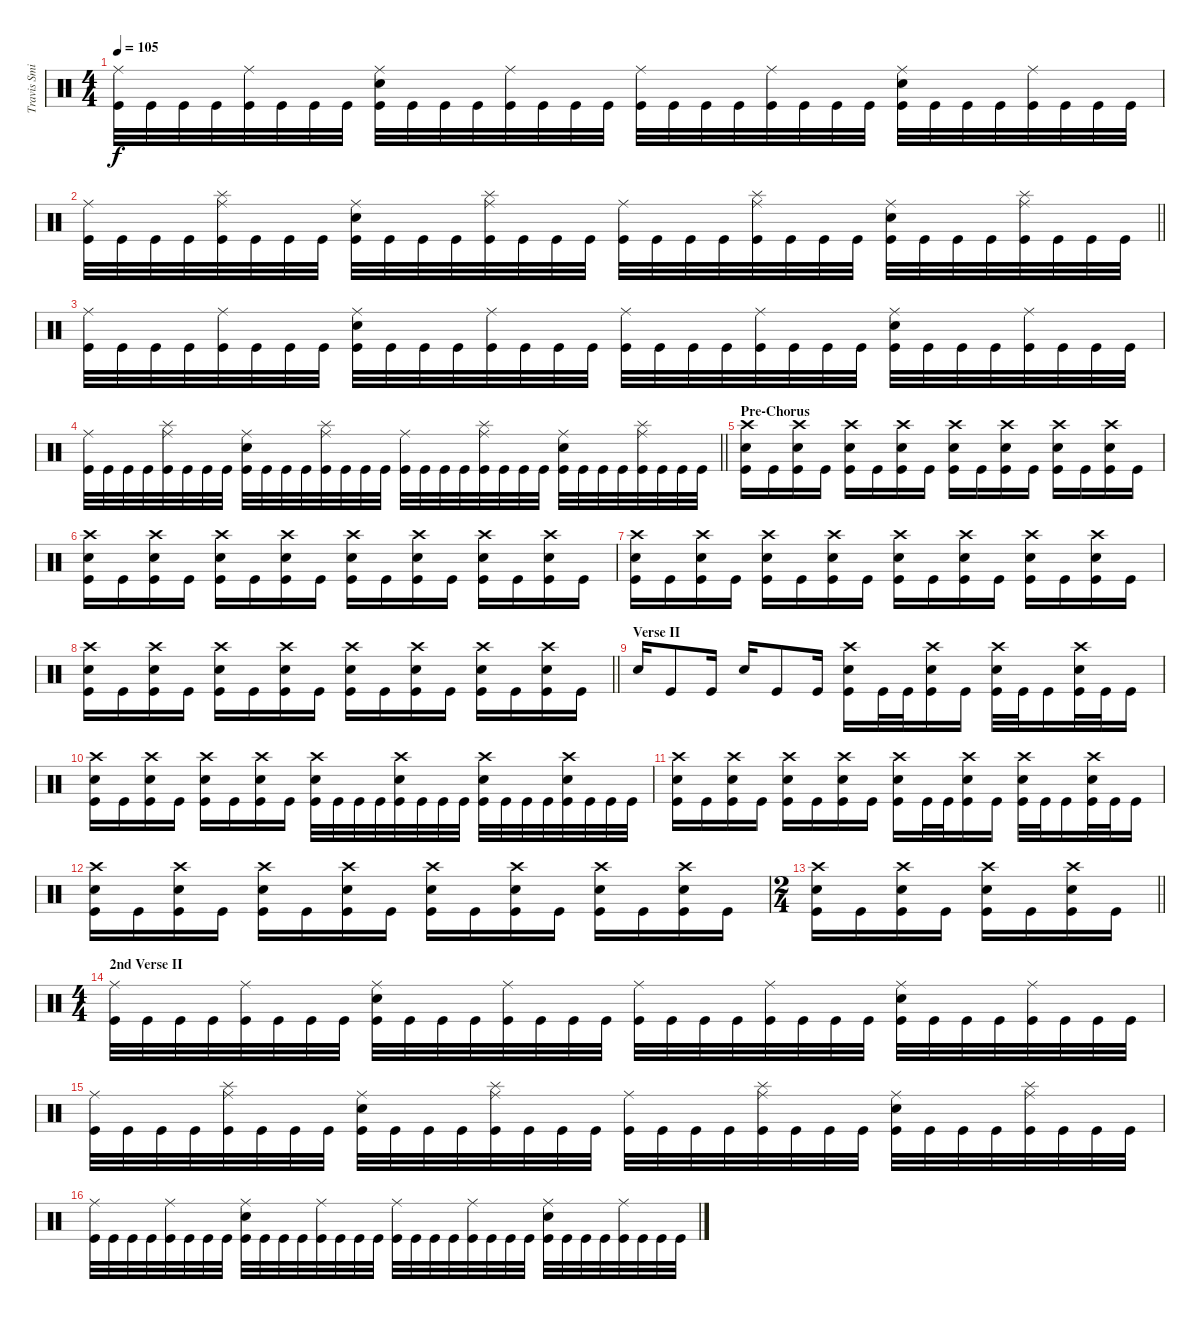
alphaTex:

\track ("Travis Smith" "Travis Smi") {instrument percussion}
\staff {score}
\articulation defaults
\ts (4 4)
\tempo 105
\clef neutral
\ks c
("Ride (middle)" "Kick (hit)").32{dy f} "Kick (hit)".32 "Kick (hit)".32 "Kick (hit)".32 ("Ride (middle)" "Kick (hit)").32 "Kick (hit)".32 "Kick (hit)".32 "Kick (hit)".32 ("Ride (middle)" "Snare (hit) 2" "Kick (hit)").32 "Kick (hit)".32 "Kick (hit)".32 "Kick (hit)".32 ("Ride (middle)" "Kick (hit)").32 "Kick (hit)".32 "Kick (hit)".32 "Kick (hit)".32 ("Ride (middle)" "Kick (hit)").32 "Kick (hit)".32 "Kick (hit)".32 "Kick (hit)".32 ("Ride (middle)" "Kick (hit)").32 "Kick (hit)".32 "Kick (hit)".32 "Kick (hit)".32 ("Ride (middle)" "Snare (hit) 2" "Kick (hit)").32 "Kick (hit)".32 "Kick (hit)".32 "Kick (hit)".32 ("Ride (middle)" "Kick (hit)").32 "Kick (hit)".32 "Kick (hit)".32 "Kick (hit)".32 |
\barLineRight lightlight
("Ride (middle)" "Kick (hit)").32 "Kick (hit)".32 "Kick (hit)".32 "Kick (hit)".32 ("Ride (middle)" "Splash (hit)" "Kick (hit)").32 "Kick (hit)".32 "Kick (hit)".32 "Kick (hit)".32 ("Ride (middle)" "Snare (hit) 2" "Kick (hit)").32 "Kick (hit)".32 "Kick (hit)".32 "Kick (hit)".32 ("Ride (middle)" "Splash (hit)" "Kick (hit)").32 "Kick (hit)".32 "Kick (hit)".32 "Kick (hit)".32 ("Ride (middle)" "Kick (hit)").32 "Kick (hit)".32 "Kick (hit)".32 "Kick (hit)".32 ("Ride (middle)" "Splash (hit)" "Kick (hit)").32 "Kick (hit)".32 "Kick (hit)".32 "Kick (hit)".32 ("Ride (middle)" "Snare (hit) 2" "Kick (hit)").32 "Kick (hit)".32 "Kick (hit)".32 "Kick (hit)".32 ("Ride (middle)" "Splash (hit)" "Kick (hit)").32 "Kick (hit)".32 "Kick (hit)".32 "Kick (hit)".32 |
("Ride (middle)" "Kick (hit)").32 "Kick (hit)".32 "Kick (hit)".32 "Kick (hit)".32 ("Ride (middle)" "Kick (hit)").32 "Kick (hit)".32 "Kick (hit)".32 "Kick (hit)".32 ("Ride (middle)" "Snare (hit) 2" "Kick (hit)").32 "Kick (hit)".32 "Kick (hit)".32 "Kick (hit)".32 ("Ride (middle)" "Kick (hit)").32 "Kick (hit)".32 "Kick (hit)".32 "Kick (hit)".32 ("Ride (middle)" "Kick (hit)").32 "Kick (hit)".32 "Kick (hit)".32 "Kick (hit)".32 ("Ride (middle)" "Kick (hit)").32 "Kick (hit)".32 "Kick (hit)".32 "Kick (hit)".32 ("Ride (middle)" "Snare (hit) 2" "Kick (hit)").32 "Kick (hit)".32 "Kick (hit)".32 "Kick (hit)".32 ("Ride (middle)" "Kick (hit)").32 "Kick (hit)".32 "Kick (hit)".32 "Kick (hit)".32 |
\barLineRight lightlight
("Ride (middle)" "Kick (hit)").32 "Kick (hit)".32 "Kick (hit)".32 "Kick (hit)".32 ("Ride (middle)" "Splash (hit)" "Kick (hit)").32 "Kick (hit)".32 "Kick (hit)".32 "Kick (hit)".32 ("Ride (middle)" "Snare (hit) 2" "Kick (hit)").32 "Kick (hit)".32 "Kick (hit)".32 "Kick (hit)".32 ("Ride (middle)" "Splash (hit)" "Kick (hit)").32 "Kick (hit)".32 "Kick (hit)".32 "Kick (hit)".32 ("Ride (middle)" "Kick (hit)").32 "Kick (hit)".32 "Kick (hit)".32 "Kick (hit)".32 ("Ride (middle)" "Splash (hit)" "Kick (hit)").32 "Kick (hit)".32 "Kick (hit)".32 "Kick (hit)".32 ("Ride (middle)" "Snare (hit) 2" "Kick (hit)").32 "Kick (hit)".32 "Kick (hit)".32 "Kick (hit)".32 ("Ride (middle)" "Splash (hit)" "Kick (hit)").32 "Kick (hit)".32 "Kick (hit)".32 "Kick (hit)".32 |
\section ("" "Pre-Chorus")
("Crash high (hit)" "Snare (hit) 2" "Kick (hit)").16 "Kick (hit)".16 ("Crash high (hit)" "Snare (hit) 2" "Kick (hit)").16 "Kick (hit)".16 ("Crash high (hit)" "Snare (hit) 2" "Kick (hit)").16 "Kick (hit)".16 ("Crash high (hit)" "Snare (hit) 2" "Kick (hit)").16 "Kick (hit)".16 ("Crash high (hit)" "Snare (hit) 2" "Kick (hit)").16 "Kick (hit)".16 ("Crash high (hit)" "Snare (hit) 2" "Kick (hit)").16 "Kick (hit)".16 ("Crash high (hit)" "Snare (hit) 2" "Kick (hit)").16 "Kick (hit)".16 ("Crash high (hit)" "Snare (hit) 2" "Kick (hit)").16 "Kick (hit)".16 |
("Crash high (hit)" "Snare (hit) 2" "Kick (hit)").16 "Kick (hit)".16 ("Crash high (hit)" "Snare (hit) 2" "Kick (hit)").16 "Kick (hit)".16 ("Crash high (hit)" "Snare (hit) 2" "Kick (hit)").16 "Kick (hit)".16 ("Crash high (hit)" "Snare (hit) 2" "Kick (hit)").16 "Kick (hit)".16 ("Crash high (hit)" "Snare (hit) 2" "Kick (hit)").16 "Kick (hit)".16 ("Crash high (hit)" "Snare (hit) 2" "Kick (hit)").16 "Kick (hit)".16 ("Crash high (hit)" "Snare (hit) 2" "Kick (hit)").16 "Kick (hit)".16 ("Crash high (hit)" "Snare (hit) 2" "Kick (hit)").16 "Kick (hit)".16 |
("Crash high (hit)" "Snare (hit) 2" "Kick (hit)").16 "Kick (hit)".16 ("Crash high (hit)" "Snare (hit) 2" "Kick (hit)").16 "Kick (hit)".16 ("Crash high (hit)" "Snare (hit) 2" "Kick (hit)").16 "Kick (hit)".16 ("Crash high (hit)" "Snare (hit) 2" "Kick (hit)").16 "Kick (hit)".16 ("Crash high (hit)" "Snare (hit) 2" "Kick (hit)").16 "Kick (hit)".16 ("Crash high (hit)" "Snare (hit) 2" "Kick (hit)").16 "Kick (hit)".16 ("Crash high (hit)" "Snare (hit) 2" "Kick (hit)").16 "Kick (hit)".16 ("Crash high (hit)" "Snare (hit) 2" "Kick (hit)").16 "Kick (hit)".16 |
\barLineRight lightlight
("Crash high (hit)" "Snare (hit) 2" "Kick (hit)").16 "Kick (hit)".16 ("Crash high (hit)" "Snare (hit) 2" "Kick (hit)").16 "Kick (hit)".16 ("Crash high (hit)" "Snare (hit) 2" "Kick (hit)").16 "Kick (hit)".16 ("Crash high (hit)" "Snare (hit) 2" "Kick (hit)").16 "Kick (hit)".16 ("Crash high (hit)" "Snare (hit) 2" "Kick (hit)").16 "Kick (hit)".16 ("Crash high (hit)" "Snare (hit) 2" "Kick (hit)").16 "Kick (hit)".16 ("Crash high (hit)" "Snare (hit) 2" "Kick (hit)").16 "Kick (hit)".16 ("Crash high (hit)" "Snare (hit) 2" "Kick (hit)").16 "Kick (hit)".16 |
\section ("" "Verse II")
"Snare (hit) 2".16 "Kick (hit)".8 "Kick (hit)".16 "Snare (hit) 2".16 "Kick (hit)".8 "Kick (hit)".16 ("Crash high (hit)" "Snare (hit) 2" "Kick (hit)").16 "Kick (hit)".32 "Kick (hit)".32 ("Crash high (hit)" "Snare (hit) 2" "Kick (hit)").16 "Kick (hit)".16 ("Crash high (hit)" "Snare (hit) 2" "Kick (hit)").32 "Kick (hit)".32 "Kick (hit)".16 ("Crash high (hit)" "Snare (hit) 2" "Kick (hit)").32 "Kick (hit)".32 "Kick (hit)".16 |
("Crash high (hit)" "Snare (hit) 2" "Kick (hit)").16 "Kick (hit)".16 ("Crash high (hit)" "Snare (hit) 2" "Kick (hit)").16 "Kick (hit)".16 ("Crash high (hit)" "Snare (hit) 2" "Kick (hit)").16 "Kick (hit)".16 ("Crash high (hit)" "Snare (hit) 2" "Kick (hit)").16 "Kick (hit)".16 ("Crash high (hit)" "Snare (hit) 2" "Kick (hit)").32 "Kick (hit)".32 "Kick (hit)".32 "Kick (hit)".32 ("Crash high (hit)" "Snare (hit) 2" "Kick (hit)").32 "Kick (hit)".32 "Kick (hit)".32 "Kick (hit)".32 ("Crash high (hit)" "Snare (hit) 2" "Kick (hit)").32 "Kick (hit)".32 "Kick (hit)".32 "Kick (hit)".32 ("Crash high (hit)" "Snare (hit) 2" "Kick (hit)").32 "Kick (hit)".32 "Kick (hit)".32 "Kick (hit)".32 |
("Crash high (hit)" "Snare (hit) 2" "Kick (hit)").16 "Kick (hit)".16 ("Crash high (hit)" "Snare (hit) 2" "Kick (hit)").16 "Kick (hit)".16 ("Crash high (hit)" "Snare (hit) 2" "Kick (hit)").16 "Kick (hit)".16 ("Crash high (hit)" "Snare (hit) 2" "Kick (hit)").16 "Kick (hit)".16 ("Crash high (hit)" "Snare (hit) 2" "Kick (hit)").16 "Kick (hit)".32 "Kick (hit)".32 ("Crash high (hit)" "Snare (hit) 2" "Kick (hit)").16 "Kick (hit)".16 ("Crash high (hit)" "Snare (hit) 2" "Kick (hit)").32 "Kick (hit)".32 "Kick (hit)".16 ("Crash high (hit)" "Snare (hit) 2" "Kick (hit)").32 "Kick (hit)".32 "Kick (hit)".16 |
("Crash high (hit)" "Snare (hit) 2" "Kick (hit)").16 "Kick (hit)".16 ("Crash high (hit)" "Snare (hit) 2" "Kick (hit)").16 "Kick (hit)".16 ("Crash high (hit)" "Snare (hit) 2" "Kick (hit)").16 "Kick (hit)".16 ("Crash high (hit)" "Snare (hit) 2" "Kick (hit)").16 "Kick (hit)".16 ("Crash high (hit)" "Snare (hit) 2" "Kick (hit)").16 "Kick (hit)".16 ("Crash high (hit)" "Snare (hit) 2" "Kick (hit)").16 "Kick (hit)".16 ("Crash high (hit)" "Snare (hit) 2" "Kick (hit)").16 "Kick (hit)".16 ("Crash high (hit)" "Snare (hit) 2" "Kick (hit)").16 "Kick (hit)".16 |
\ts (2 4)
\barLineRight lightlight
("Crash high (hit)" "Snare (hit) 2" "Kick (hit)").16 "Kick (hit)".16 ("Crash high (hit)" "Snare (hit) 2" "Kick (hit)").16 "Kick (hit)".16 ("Crash high (hit)" "Snare (hit) 2" "Kick (hit)").16 "Kick (hit)".16 ("Crash high (hit)" "Snare (hit) 2" "Kick (hit)").16 "Kick (hit)".16 |
\ts (4 4)
\section ("" "2nd Verse II")
("Ride (middle)" "Kick (hit)").32 "Kick (hit)".32 "Kick (hit)".32 "Kick (hit)".32 ("Ride (middle)" "Kick (hit)").32 "Kick (hit)".32 "Kick (hit)".32 "Kick (hit)".32 ("Ride (middle)" "Snare (hit) 2" "Kick (hit)").32 "Kick (hit)".32 "Kick (hit)".32 "Kick (hit)".32 ("Ride (middle)" "Kick (hit)").32 "Kick (hit)".32 "Kick (hit)".32 "Kick (hit)".32 ("Ride (middle)" "Kick (hit)").32 "Kick (hit)".32 "Kick (hit)".32 "Kick (hit)".32 ("Ride (middle)" "Kick (hit)").32 "Kick (hit)".32 "Kick (hit)".32 "Kick (hit)".32 ("Ride (middle)" "Snare (hit) 2" "Kick (hit)").32 "Kick (hit)".32 "Kick (hit)".32 "Kick (hit)".32 ("Ride (middle)" "Kick (hit)").32 "Kick (hit)".32 "Kick (hit)".32 "Kick (hit)".32 |
("Ride (middle)" "Kick (hit)").32 "Kick (hit)".32 "Kick (hit)".32 "Kick (hit)".32 ("Ride (middle)" "Splash (hit)" "Kick (hit)").32 "Kick (hit)".32 "Kick (hit)".32 "Kick (hit)".32 ("Ride (middle)" "Snare (hit) 2" "Kick (hit)").32 "Kick (hit)".32 "Kick (hit)".32 "Kick (hit)".32 ("Ride (middle)" "Splash (hit)" "Kick (hit)").32 "Kick (hit)".32 "Kick (hit)".32 "Kick (hit)".32 ("Ride (middle)" "Kick (hit)").32 "Kick (hit)".32 "Kick (hit)".32 "Kick (hit)".32 ("Ride (middle)" "Splash (hit)" "Kick (hit)").32 "Kick (hit)".32 "Kick (hit)".32 "Kick (hit)".32 ("Ride (middle)" "Snare (hit) 2" "Kick (hit)").32 "Kick (hit)".32 "Kick (hit)".32 "Kick (hit)".32 ("Ride (middle)" "Splash (hit)" "Kick (hit)").32 "Kick (hit)".32 "Kick (hit)".32 "Kick (hit)".32 |
("Ride (middle)" "Kick (hit)").32 "Kick (hit)".32 "Kick (hit)".32 "Kick (hit)".32 ("Ride (middle)" "Kick (hit)").32 "Kick (hit)".32 "Kick (hit)".32 "Kick (hit)".32 ("Ride (middle)" "Snare (hit) 2" "Kick (hit)").32 "Kick (hit)".32 "Kick (hit)".32 "Kick (hit)".32 ("Ride (middle)" "Kick (hit)").32 "Kick (hit)".32 "Kick (hit)".32 "Kick (hit)".32 ("Ride (middle)" "Kick (hit)").32 "Kick (hit)".32 "Kick (hit)".32 "Kick (hit)".32 ("Ride (middle)" "Kick (hit)").32 "Kick (hit)".32 "Kick (hit)".32 "Kick (hit)".32 ("Ride (middle)" "Snare (hit) 2" "Kick (hit)").32 "Kick (hit)".32 "Kick (hit)".32 "Kick (hit)".32 ("Ride (middle)" "Kick (hit)").32 "Kick (hit)".32 "Kick (hit)".32 "Kick (hit)".32
